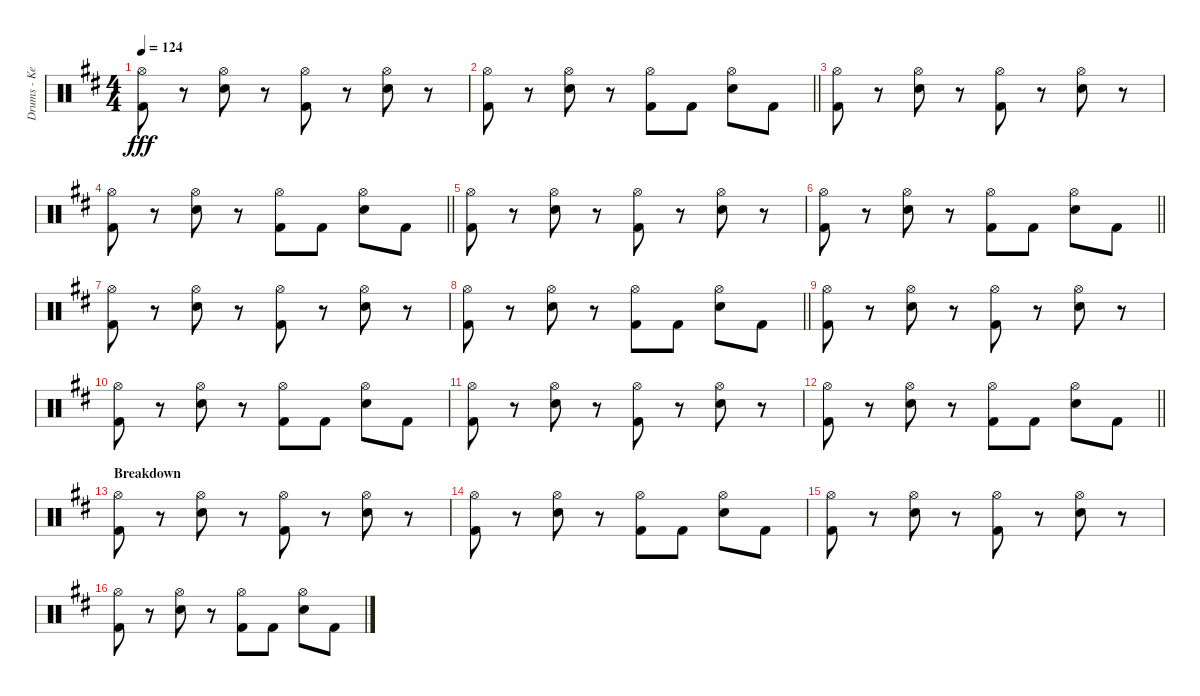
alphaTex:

\track ("Drums - Kevin Frank" "Drums - Ke") {instrument percussion}
\staff {score}
\articulation defaults
\ts (4 4)
\tempo 124
\clef neutral
\ks d
("Hi-Hat (open)" "Kick (hit) 2").8{dy fff} r.8 ("Hi-Hat (open)" "Snare (hit) 2").8 r.8 ("Hi-Hat (open)" "Kick (hit) 2").8 r.8 ("Hi-Hat (open)" "Snare (hit) 2").8 r.8 |
\barLineRight lightlight
("Hi-Hat (open)" "Kick (hit) 2").8 r.8 ("Hi-Hat (open)" "Snare (hit) 2").8 r.8 ("Hi-Hat (open)" "Kick (hit) 2").8 "Kick (hit) 2".8 ("Hi-Hat (open)" "Snare (hit) 2").8 "Kick (hit) 2".8 |
("Hi-Hat (open)" "Kick (hit) 2").8 r.8 ("Hi-Hat (open)" "Snare (hit) 2").8 r.8 ("Hi-Hat (open)" "Kick (hit) 2").8 r.8 ("Hi-Hat (open)" "Snare (hit) 2").8 r.8 |
\barLineRight lightlight
("Hi-Hat (open)" "Kick (hit) 2").8 r.8 ("Hi-Hat (open)" "Snare (hit) 2").8 r.8 ("Hi-Hat (open)" "Kick (hit) 2").8 "Kick (hit) 2".8 ("Hi-Hat (open)" "Snare (hit) 2").8 "Kick (hit) 2".8 |
("Hi-Hat (open)" "Kick (hit) 2").8 r.8 ("Hi-Hat (open)" "Snare (hit) 2").8 r.8 ("Hi-Hat (open)" "Kick (hit) 2").8 r.8 ("Hi-Hat (open)" "Snare (hit) 2").8 r.8 |
\barLineRight lightlight
("Hi-Hat (open)" "Kick (hit) 2").8 r.8 ("Hi-Hat (open)" "Snare (hit) 2").8 r.8 ("Hi-Hat (open)" "Kick (hit) 2").8 "Kick (hit) 2".8 ("Hi-Hat (open)" "Snare (hit) 2").8 "Kick (hit) 2".8 |
("Hi-Hat (open)" "Kick (hit) 2").8 r.8 ("Hi-Hat (open)" "Snare (hit) 2").8 r.8 ("Hi-Hat (open)" "Kick (hit) 2").8 r.8 ("Hi-Hat (open)" "Snare (hit) 2").8 r.8 |
\barLineRight lightlight
("Hi-Hat (open)" "Kick (hit) 2").8 r.8 ("Hi-Hat (open)" "Snare (hit) 2").8 r.8 ("Hi-Hat (open)" "Kick (hit) 2").8 "Kick (hit) 2".8 ("Hi-Hat (open)" "Snare (hit) 2").8 "Kick (hit) 2".8 |
("Hi-Hat (open)" "Kick (hit) 2").8 r.8 ("Hi-Hat (open)" "Snare (hit) 2").8 r.8 ("Hi-Hat (open)" "Kick (hit) 2").8 r.8 ("Hi-Hat (open)" "Snare (hit) 2").8 r.8 |
("Hi-Hat (open)" "Kick (hit) 2").8 r.8 ("Hi-Hat (open)" "Snare (hit) 2").8 r.8 ("Hi-Hat (open)" "Kick (hit) 2").8 "Kick (hit) 2".8 ("Hi-Hat (open)" "Snare (hit) 2").8 "Kick (hit) 2".8 |
("Hi-Hat (open)" "Kick (hit) 2").8 r.8 ("Hi-Hat (open)" "Snare (hit) 2").8 r.8 ("Hi-Hat (open)" "Kick (hit) 2").8 r.8 ("Hi-Hat (open)" "Snare (hit) 2").8 r.8 |
\barLineRight lightlight
("Hi-Hat (open)" "Kick (hit) 2").8 r.8 ("Hi-Hat (open)" "Snare (hit) 2").8 r.8 ("Hi-Hat (open)" "Kick (hit) 2").8 "Kick (hit) 2".8 ("Hi-Hat (open)" "Snare (hit) 2").8 "Kick (hit) 2".8 |
\section ("" "Breakdown")
("Hi-Hat (open)" "Kick (hit) 2").8 r.8 ("Hi-Hat (open)" "Snare (hit) 2").8 r.8 ("Hi-Hat (open)" "Kick (hit) 2").8 r.8 ("Hi-Hat (open)" "Snare (hit) 2").8 r.8 |
("Hi-Hat (open)" "Kick (hit) 2").8 r.8 ("Hi-Hat (open)" "Snare (hit) 2").8 r.8 ("Hi-Hat (open)" "Kick (hit) 2").8 "Kick (hit) 2".8 ("Hi-Hat (open)" "Snare (hit) 2").8 "Kick (hit) 2".8 |
("Hi-Hat (open)" "Kick (hit) 2").8 r.8 ("Hi-Hat (open)" "Snare (hit) 2").8 r.8 ("Hi-Hat (open)" "Kick (hit) 2").8 r.8 ("Hi-Hat (open)" "Snare (hit) 2").8 r.8 |
("Hi-Hat (open)" "Kick (hit) 2").8 r.8 ("Hi-Hat (open)" "Snare (hit) 2").8 r.8 ("Hi-Hat (open)" "Kick (hit) 2").8 "Kick (hit) 2".8 ("Hi-Hat (open)" "Snare (hit) 2").8 "Kick (hit) 2".8
